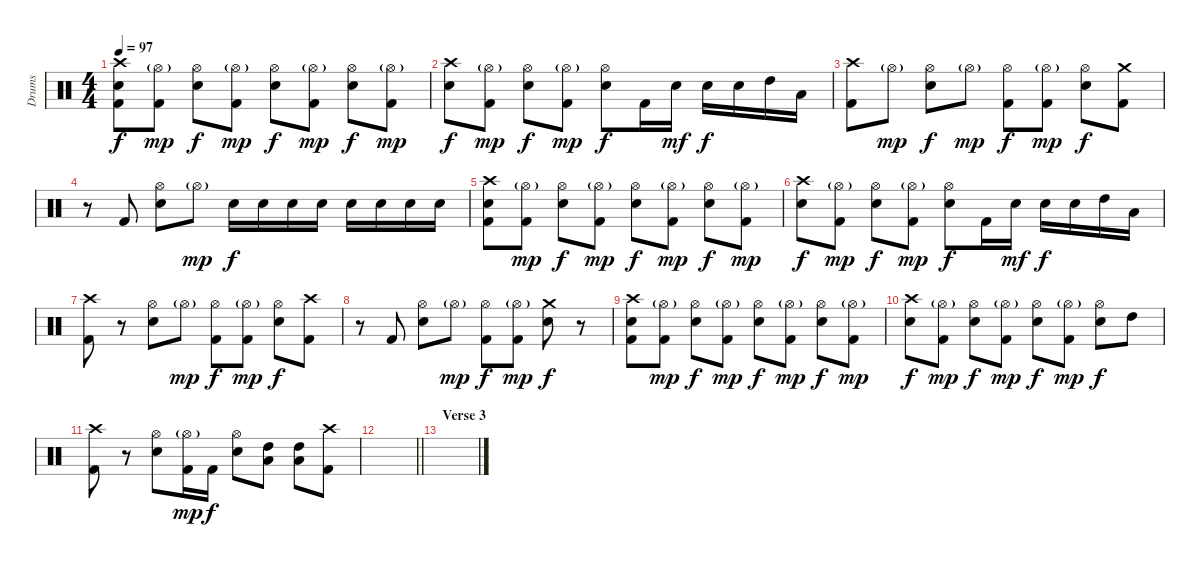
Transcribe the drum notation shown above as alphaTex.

\track ("Drums" "Drums") {instrument percussion}
\staff {score}
\articulation defaults
\ts (4 4)
\tempo 97
\clef neutral
\ks c
("Crash high (hit)" "Electric Snare (hit)" "Kick (hit) 2").8{dy f} ("Hi-Hat (open)"{g} "Kick (hit) 2").8{dy mp} ("Hi-Hat (open)" "Electric Snare (hit)").8{dy f} ("Hi-Hat (open)"{g} "Kick (hit) 2").8{dy mp} ("Hi-Hat (open)" "Electric Snare (hit)").8{dy f} ("Hi-Hat (open)"{g} "Kick (hit) 2").8{dy mp} ("Hi-Hat (open)" "Electric Snare (hit)").8{dy f} ("Hi-Hat (open)"{g} "Kick (hit) 2").8{dy mp} |
("Crash high (hit)" "Electric Snare (hit)").8{dy f} ("Hi-Hat (open)"{g} "Kick (hit) 2").8{dy mp} ("Hi-Hat (open)" "Electric Snare (hit)").8{dy f} ("Hi-Hat (open)"{g} "Kick (hit) 2").8{dy mp} ("Hi-Hat (open)" "Electric Snare (hit)").8{dy f} "Kick (hit) 2".16 "Electric Snare (hit)".16{dy mf} "Electric Snare (hit)".16{dy f} "Electric Snare (hit)".16 "High Tom (hit)".16 "Low Tom (hit)".16 |
("Crash high (hit)" "Kick (hit) 2").8 "Hi-Hat (open)"{g}.8{dy mp} ("Hi-Hat (open)" "Electric Snare (hit)").8{dy f} "Hi-Hat (open)"{g}.8{dy mp} ("Hi-Hat (open)" "Kick (hit) 2").8{dy f} ("Hi-Hat (open)"{g} "Kick (hit) 2").8{dy mp} ("Hi-Hat (open)" "Electric Snare (hit)").8{dy f} ("Crash medium (hit)" "Kick (hit) 2").8 |
r.8 "Kick (hit) 2".8 ("Hi-Hat (open)" "Electric Snare (hit)").8 "Hi-Hat (open)"{g}.8{dy mp} "Electric Snare (hit)".16{dy f} "Electric Snare (hit)".16 "Electric Snare (hit)".16 "Electric Snare (hit)".16 "Electric Snare (hit)".16 "Electric Snare (hit)".16 "Electric Snare (hit)".16 "Electric Snare (hit)".16 |
("Crash high (hit)" "Electric Snare (hit)" "Kick (hit) 2").8 ("Hi-Hat (open)"{g} "Kick (hit) 2").8{dy mp} ("Hi-Hat (open)" "Electric Snare (hit)").8{dy f} ("Hi-Hat (open)"{g} "Kick (hit) 2").8{dy mp} ("Hi-Hat (open)" "Electric Snare (hit)").8{dy f} ("Hi-Hat (open)"{g} "Kick (hit) 2").8{dy mp} ("Hi-Hat (open)" "Electric Snare (hit)").8{dy f} ("Hi-Hat (open)"{g} "Kick (hit) 2").8{dy mp} |
("Crash high (hit)" "Electric Snare (hit)").8{dy f} ("Hi-Hat (open)"{g} "Kick (hit) 2").8{dy mp} ("Hi-Hat (open)" "Electric Snare (hit)").8{dy f} ("Hi-Hat (open)"{g} "Kick (hit) 2").8{dy mp} ("Hi-Hat (open)" "Electric Snare (hit)").8{dy f} "Kick (hit) 2".16 "Electric Snare (hit)".16{dy mf} "Electric Snare (hit)".16{dy f} "Electric Snare (hit)".16 "High Tom (hit)".16 "Low Tom (hit)".16 |
("Crash high (hit)" "Kick (hit) 2").8 r.8 ("Hi-Hat (open)" "Electric Snare (hit)").8 "Hi-Hat (open)"{g}.8{dy mp} ("Hi-Hat (open)" "Kick (hit) 2").8{dy f} ("Hi-Hat (open)"{g} "Kick (hit) 2").8{dy mp} ("Hi-Hat (open)" "Electric Snare (hit)").8{dy f} ("Crash high (hit)" "Kick (hit) 2").8 |
r.8 "Kick (hit) 2".8 ("Hi-Hat (open)" "Electric Snare (hit)").8 "Hi-Hat (open)"{g}.8{dy mp} ("Hi-Hat (open)" "Kick (hit) 2").8{dy f} ("Hi-Hat (open)"{g} "Kick (hit) 2").8{dy mp} ("Crash medium (hit)" "Electric Snare (hit)").8{dy f} r.8 |
("Crash high (hit)" "Electric Snare (hit)" "Kick (hit) 2").8 ("Hi-Hat (open)"{g} "Kick (hit) 2").8{dy mp} ("Hi-Hat (open)" "Electric Snare (hit)").8{dy f} ("Hi-Hat (open)"{g} "Kick (hit) 2").8{dy mp} ("Hi-Hat (open)" "Electric Snare (hit)").8{dy f} ("Hi-Hat (open)"{g} "Kick (hit) 2").8{dy mp} ("Hi-Hat (open)" "Electric Snare (hit)").8{dy f} ("Hi-Hat (open)"{g} "Kick (hit) 2").8{dy mp} |
("Crash high (hit)" "Electric Snare (hit)").8{dy f} ("Hi-Hat (open)"{g} "Kick (hit) 2").8{dy mp} ("Hi-Hat (open)" "Electric Snare (hit)").8{dy f} ("Hi-Hat (open)"{g} "Kick (hit) 2").8{dy mp} ("Hi-Hat (open)" "Electric Snare (hit)").8{dy f} ("Hi-Hat (open)"{g} "Kick (hit) 2").8{dy mp} ("Hi-Hat (open)" "Electric Snare (hit)").8{dy f} "High Tom (hit)".8 |
("Crash high (hit)" "Kick (hit) 2").8 r.8 ("Hi-Hat (open)" "Electric Snare (hit)").8 ("Hi-Hat (open)"{g} "Kick (hit) 2").16{dy mp} "Kick (hit) 2".16{dy f} ("Hi-Hat (open)" "Electric Snare (hit)").8 ("Low Tom (hit)" "High Tom (hit)").8 ("Low Tom (hit)" "High Tom (hit)").8 ("Crash high (hit)" "Kick (hit) 2").8 |
\barLineRight lightlight
|
\section ("" "Verse 3")
